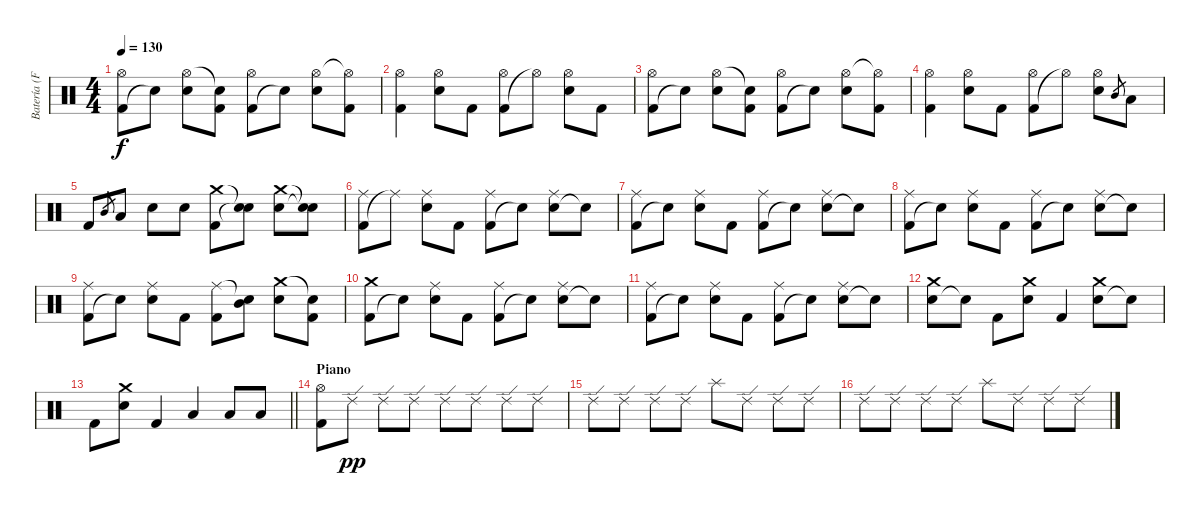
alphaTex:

\track ("Batería (F. Scarcella)" "Batería (F") {instrument percussion}
\staff {score}
\articulation defaults
\ts (4 4)
\tempo 130
\clef neutral
\ks c
("Kick (hit) 2" "Hi-Hat (open)").8{dy f} "Snare (hit)"{t}.8 ("Snare (hit) 2" "Hi-Hat (open)").8 ("Kick (hit) 2" "Snare (hit)"{t}).8 ("Kick (hit) 2" "Hi-Hat (open)").8 "Snare (hit)"{t}.8 ("Snare (hit) 2" "Hi-Hat (open)").8 ("Kick (hit) 2" "Hi-Hat (open)"{t}).8 |
("Kick (hit) 2" "Hi-Hat (open)").4 ("Snare (hit) 2" "Hi-Hat (open)").8 "Kick (hit) 2".8 ("Kick (hit) 2" "Hi-Hat (open)").8 "Hi-Hat (open)"{t}.8 ("Snare (hit) 2" "Hi-Hat (open)").8 "Kick (hit) 2".8 |
("Kick (hit) 2" "Hi-Hat (open)").8 "Snare (hit)"{t}.8 ("Snare (hit) 2" "Hi-Hat (open)").8 ("Kick (hit) 2" "Snare (hit)"{t}).8 ("Kick (hit) 2" "Hi-Hat (open)").8 "Snare (hit)"{t}.8 ("Snare (hit) 2" "Hi-Hat (open)").8 ("Kick (hit) 2" "Hi-Hat (open)"{t}).8 |
("Kick (hit) 2" "Hi-Hat (open)").4 ("Snare (hit) 2" "Hi-Hat (open)").8 "Kick (hit) 2".8 ("Kick (hit) 2" "Hi-Hat (open)").8 "Hi-Hat (open)"{t}.8 ("Snare (hit) 2" "Hi-Hat (open)").8 "Mid Tom (hit)".8{gr} "Low Tom (hit)".8 |
"Kick (hit) 2".8 "Mid Tom (hit)".8{gr} "Low Tom (hit)".8 "Snare (hit) 2".8 "Snare (hit) 2".8 ("Kick (hit) 2" "Crash medium (hit)").8 ("Snare (hit) 2"{t} "Snare (hit)"{t}).8 ("Snare (hit) 2" "Crash medium (hit)").8 ("Snare (hit)"{t} "Snare (hit)"{t}).8 |
("Kick (hit) 2" "Ride (middle)").8 "Ride (middle)"{t}.8 ("Snare (hit) 2" "Ride (middle)").8 "Kick (hit) 2".8 ("Kick (hit) 2" "Ride (middle)").8 "Snare (hit)"{t}.8 ("Snare (hit) 2" "Ride (middle)").8 "Snare (hit)"{t}.8 |
("Kick (hit) 2" "Ride (middle)").8 "Snare (hit)"{t}.8 ("Snare (hit) 2" "Ride (middle)").8 "Kick (hit) 2".8 ("Kick (hit) 2" "Ride (middle)").8 "Snare (hit)"{t}.8 ("Snare (hit) 2" "Ride (middle)").8 "Snare (hit)"{t}.8 |
("Kick (hit) 2" "Ride (middle)").8 "Snare (hit)"{t}.8 ("Snare (hit) 2" "Ride (middle)").8 "Kick (hit) 2".8 ("Kick (hit) 2" "Ride (middle)").8 "Snare (hit)"{t}.8 ("Snare (hit) 2" "Ride (middle)").8 "Snare (hit)"{t}.8 |
("Kick (hit) 2" "Ride (middle)").8 "Snare (hit)"{t}.8 ("Snare (hit) 2" "Ride (middle)").8 "Kick (hit) 2".8 ("Kick (hit) 2" "Ride (middle)").8 ("Mid Tom (hit)" "Snare (hit)"{t}).8 ("Snare (hit) 2" "Crash medium (hit)").8 ("Kick (hit) 2" "Snare (hit)"{t}).8 |
("Kick (hit) 2" "Crash medium (hit)").8 "Snare (hit)"{t}.8 ("Snare (hit) 2" "Ride (middle)").8 "Kick (hit) 2".8 ("Kick (hit) 2" "Ride (middle)").8 "Snare (hit)"{t}.8 ("Snare (hit) 2" "Ride (middle)").8 "Snare (hit)"{t}.8 |
("Kick (hit) 2" "Ride (middle)").8 "Snare (hit)"{t}.8 ("Snare (hit) 2" "Ride (middle)").8 "Kick (hit) 2".8 ("Kick (hit) 2" "Ride (middle)").8 "Snare (hit)"{t}.8 ("Snare (hit) 2" "Ride (middle)").8 "Snare (hit)"{t}.8 |
("Snare (hit) 2" "Crash medium (hit)").8 "Snare (hit)"{t}.8 "Kick (hit) 2".8 ("Snare (hit) 2" "Crash medium (hit)").8 "Kick (hit) 2".4 ("Snare (hit) 2" "Crash medium (hit)").8 "Snare (hit)"{t}.8 |
\barLineRight lightlight "Kick (hit) 2".8
("Snare (hit) 2" "Crash medium (hit)").8 "Kick (hit) 2".4 "Low Tom (hit)".4 "Low Tom (hit)".8 "Low Tom (hit)".8 |
\section ("" "Piano")
("Kick (hit) 2" "Hi-Hat (open)").8 "Ride (edge) 2".8{dy pp} "Ride (edge) 2".8 "Ride (edge) 2".8 "Ride (edge) 2".8 "Ride (edge) 2".8 "Ride (edge) 2".8 "Ride (edge) 2".8 |
"Ride (edge) 2".8 "Ride (edge) 2".8 "Ride (edge) 2".8 "Ride (edge) 2".8 "Splash (hit)".8 "Ride (edge) 2".8 "Ride (edge) 2".8 "Ride (edge) 2".8 |
"Ride (edge) 2".8 "Ride (edge) 2".8 "Ride (edge) 2".8 "Ride (edge) 2".8 "Splash (hit)".8 "Ride (edge) 2".8 "Ride (edge) 2".8 "Ride (edge) 2".8
